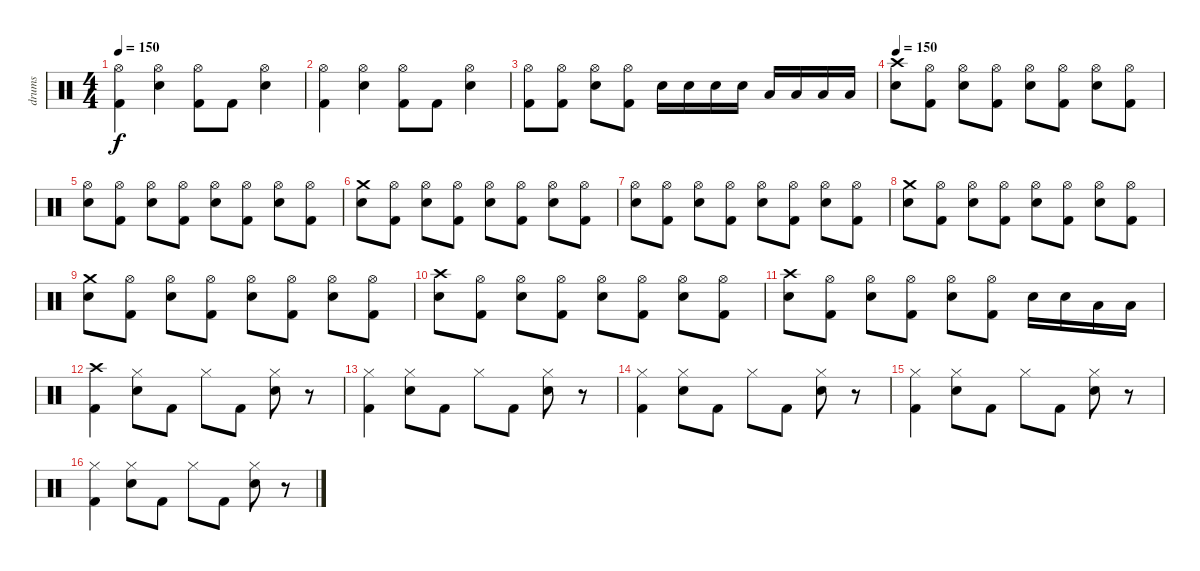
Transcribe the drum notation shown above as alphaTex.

\track ("drums" "drums") {instrument percussion}
\staff {score}
\articulation defaults
\ts (4 4)
\tempo 150
\clef neutral
\ks c
("Hi-Hat (open)" "Kick (hit) 2").4{dy f} ("Hi-Hat (open)" "Electric Snare (hit)").4 ("Hi-Hat (open)" "Kick (hit) 2").8 "Kick (hit) 2".8 ("Hi-Hat (open)" "Electric Snare (hit)").4 |
("Hi-Hat (open)" "Kick (hit) 2").4 ("Hi-Hat (open)" "Electric Snare (hit)").4 ("Hi-Hat (open)" "Kick (hit) 2").8 "Kick (hit) 2".8 ("Hi-Hat (open)" "Electric Snare (hit)").4 |
("Hi-Hat (open)" "Kick (hit) 2").8 ("Hi-Hat (open)" "Kick (hit) 2").8 ("Hi-Hat (open)" "Electric Snare (hit)").8 ("Hi-Hat (open)" "Kick (hit) 2").8 "Electric Snare (hit)".16 "Electric Snare (hit)".16 "Electric Snare (hit)".16 "Electric Snare (hit)".16 "Low Tom (hit)".16 "Low Tom (hit)".16 "Low Tom (hit)".16 "Low Tom (hit)".16 |
\tempo 150
("Crash high (hit)" "Electric Snare (hit)").8 ("Hi-Hat (open)" "Kick (hit) 2").8 ("Hi-Hat (open)" "Electric Snare (hit)").8 ("Hi-Hat (open)" "Kick (hit) 2").8 ("Hi-Hat (open)" "Electric Snare (hit)").8 ("Hi-Hat (open)" "Kick (hit) 2").8 ("Hi-Hat (open)" "Electric Snare (hit)").8 ("Hi-Hat (open)" "Kick (hit) 2").8 |
("Hi-Hat (open)" "Electric Snare (hit)").8 ("Hi-Hat (open)" "Kick (hit) 2").8 ("Hi-Hat (open)" "Electric Snare (hit)").8 ("Hi-Hat (open)" "Kick (hit) 2").8 ("Hi-Hat (open)" "Electric Snare (hit)").8 ("Hi-Hat (open)" "Kick (hit) 2").8 ("Hi-Hat (open)" "Electric Snare (hit)").8 ("Hi-Hat (open)" "Kick (hit) 2").8 |
("Crash medium (hit)" "Electric Snare (hit)").8 ("Hi-Hat (open)" "Kick (hit) 2").8 ("Hi-Hat (open)" "Electric Snare (hit)").8 ("Hi-Hat (open)" "Kick (hit) 2").8 ("Hi-Hat (open)" "Electric Snare (hit)").8 ("Hi-Hat (open)" "Kick (hit) 2").8 ("Hi-Hat (open)" "Electric Snare (hit)").8 ("Hi-Hat (open)" "Kick (hit) 2").8 |
("Hi-Hat (open)" "Electric Snare (hit)").8 ("Hi-Hat (open)" "Kick (hit) 2").8 ("Hi-Hat (open)" "Electric Snare (hit)").8 ("Hi-Hat (open)" "Kick (hit) 2").8 ("Hi-Hat (open)" "Electric Snare (hit)").8 ("Hi-Hat (open)" "Kick (hit) 2").8 ("Hi-Hat (open)" "Electric Snare (hit)").8 ("Hi-Hat (open)" "Kick (hit) 2").8 |
("Crash medium (hit)" "Electric Snare (hit)").8 ("Hi-Hat (open)" "Kick (hit) 2").8 ("Hi-Hat (open)" "Electric Snare (hit)").8 ("Hi-Hat (open)" "Kick (hit) 2").8 ("Hi-Hat (open)" "Electric Snare (hit)").8 ("Hi-Hat (open)" "Kick (hit) 2").8 ("Hi-Hat (open)" "Electric Snare (hit)").8 ("Hi-Hat (open)" "Kick (hit) 2").8 |
("Crash medium (hit)" "Electric Snare (hit)").8 ("Hi-Hat (open)" "Kick (hit) 2").8 ("Hi-Hat (open)" "Electric Snare (hit)").8 ("Hi-Hat (open)" "Kick (hit) 2").8 ("Hi-Hat (open)" "Electric Snare (hit)").8 ("Hi-Hat (open)" "Kick (hit) 2").8 ("Hi-Hat (open)" "Electric Snare (hit)").8 ("Hi-Hat (open)" "Kick (hit) 2").8 |
("Crash high (hit)" "Electric Snare (hit)").8 ("Hi-Hat (open)" "Kick (hit) 2").8 ("Hi-Hat (open)" "Electric Snare (hit)").8 ("Hi-Hat (open)" "Kick (hit) 2").8 ("Hi-Hat (open)" "Electric Snare (hit)").8 ("Hi-Hat (open)" "Kick (hit) 2").8 ("Hi-Hat (open)" "Electric Snare (hit)").8 ("Hi-Hat (open)" "Kick (hit) 2").8 |
("Crash high (hit)" "Electric Snare (hit)").8 ("Hi-Hat (open)" "Kick (hit) 2").8 ("Hi-Hat (open)" "Electric Snare (hit)").8 ("Hi-Hat (open)" "Kick (hit) 2").8 ("Hi-Hat (open)" "Electric Snare (hit)").8 ("Hi-Hat (open)" "Kick (hit) 2").8 "Electric Snare (hit)".16 "Electric Snare (hit)".16 "Low Tom (hit)".16 "Low Tom (hit)".16 |
("Crash high (hit)" "Kick (hit) 2").4 ("Hi-Hat (closed)" "Electric Snare (hit)").8 "Kick (hit) 2".8 "Hi-Hat (closed)".8 "Kick (hit) 2".8 ("Hi-Hat (closed)" "Electric Snare (hit)").8 r.8 |
("Hi-Hat (closed)" "Kick (hit) 2").4 ("Hi-Hat (closed)" "Electric Snare (hit)").8 "Kick (hit) 2".8 "Hi-Hat (closed)".8 "Kick (hit) 2".8 ("Hi-Hat (closed)" "Electric Snare (hit)").8 r.8 |
("Hi-Hat (closed)" "Kick (hit) 2").4 ("Hi-Hat (closed)" "Electric Snare (hit)").8 "Kick (hit) 2".8 "Hi-Hat (closed)".8 "Kick (hit) 2".8 ("Hi-Hat (closed)" "Electric Snare (hit)").8 r.8 |
("Hi-Hat (closed)" "Kick (hit) 2").4 ("Hi-Hat (closed)" "Electric Snare (hit)").8 "Kick (hit) 2".8 "Hi-Hat (closed)".8 "Kick (hit) 2".8 ("Hi-Hat (closed)" "Electric Snare (hit)").8 r.8 |
("Hi-Hat (closed)" "Kick (hit) 2").4 ("Hi-Hat (closed)" "Electric Snare (hit)").8 "Kick (hit) 2".8 "Hi-Hat (closed)".8 "Kick (hit) 2".8 ("Hi-Hat (closed)" "Electric Snare (hit)").8 r.8
